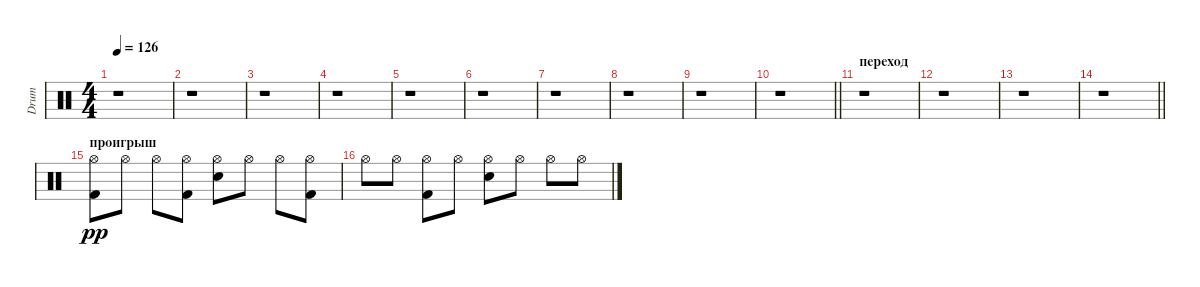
\track ("Drum" "Drum") {instrument percussion}
\staff {score}
\articulation defaults
\ts (4 4)
\tempo 126
\clef neutral
\ks c
r.1{dy pp} |
r.1 |
r.1 |
r.1 |
r.1 |
r.1 |
r.1 |
r.1 |
r.1 |
\barLineRight lightlight
r.1 |
\section ("" "переход")
r.1 |
r.1 |
r.1 |
\barLineRight lightlight
r.1 |
\section ("" "проигрыш")
("Kick (hit) 2" "Hi-Hat (open)").8 "Hi-Hat (open)".8 "Hi-Hat (open)".8 ("Hi-Hat (open)" "Kick (hit) 2").8 ("Snare (hit) 2" "Hi-Hat (open)").8 "Hi-Hat (open)".8 "Hi-Hat (open)".8 ("Hi-Hat (open)" "Kick (hit) 2").8 |
"Hi-Hat (open)".8 "Hi-Hat (open)".8 ("Hi-Hat (open)" "Kick (hit) 2").8 "Hi-Hat (open)".8 ("Snare (hit) 2" "Hi-Hat (open)").8 "Hi-Hat (open)".8 "Hi-Hat (open)".8 "Hi-Hat (open)".8
